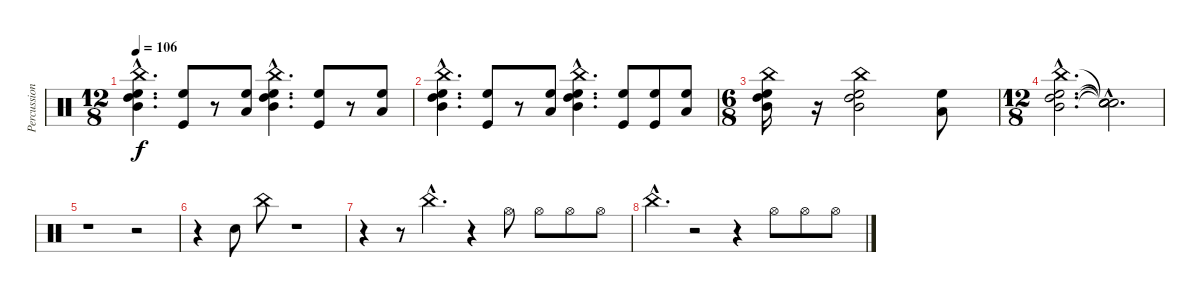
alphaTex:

\track ("Percussioni" "Percussion") {instrument percussion}
\staff {score}
\articulation defaults
\ts (12 8)
\tempo 106
\clef neutral
\ks c
("Mid Tom (hit)"{hac} "High Tom (hit)"{hac} "High Floor Tom (hit)"{hac} "China (hit)"{hac}).4{d dy f} ("Kick (hit)" "High Floor Tom (hit)").8 r.8 ("Low Tom (hit)" "High Floor Tom (hit)").8 ("Mid Tom (hit)"{hac} "High Tom (hit)"{hac} "High Floor Tom (hit)"{hac} "China (hit)"{hac}).4{d} ("Kick (hit)" "High Floor Tom (hit)").8 r.8 ("Low Tom (hit)" "High Floor Tom (hit)").8 |
("Mid Tom (hit)"{hac} "High Tom (hit)"{hac} "High Floor Tom (hit)"{hac} "China (hit)"{hac}).4{d} ("Kick (hit)" "High Floor Tom (hit)").8 r.8 ("Low Tom (hit)" "High Floor Tom (hit)").8 ("Mid Tom (hit)"{hac} "High Tom (hit)"{hac} "High Floor Tom (hit)"{hac} "China (hit)"{hac}).4{d} ("Kick (hit)" "High Floor Tom (hit)").8 ("Kick (hit)" "High Floor Tom (hit)").8 ("Low Tom (hit)" "High Floor Tom (hit)").8 |
\ts (6 8)
("Mid Tom (hit)" "High Tom (hit)" "High Floor Tom (hit)" "China (hit)").16 r.16 ("Mid Tom (hit)" "High Tom (hit)" "High Floor Tom (hit)" "China (hit)").2 ("Low Tom (hit)" "High Floor Tom (hit)").8 |
\ts (12 8)
("Mid Tom (hit)"{hac} "High Tom (hit)"{hac} "High Floor Tom (hit)"{hac} "China (hit)"{hac}).2{d} ("Snare (hit)"{hac t} "Snare (hit)"{hac t} "Snare (hit)"{hac t} "Snare (hit)"{hac t}).2{d} |
r.1 r.2 |
r.4 "Electric Snare (hit)".8 "China (hit)".8 r.1 |
r.4 r.8 "China (hit)"{hac}.4{d} r.4 "Hi-Hat (open)".8 "Hi-Hat (open)".8 "Hi-Hat (open)".8 "Hi-Hat (open)".8 |
"China (hit)"{hac}.4{d} r.2 r.4 "Hi-Hat (open)".8 "Hi-Hat (open)".8 "Hi-Hat (open)".8
